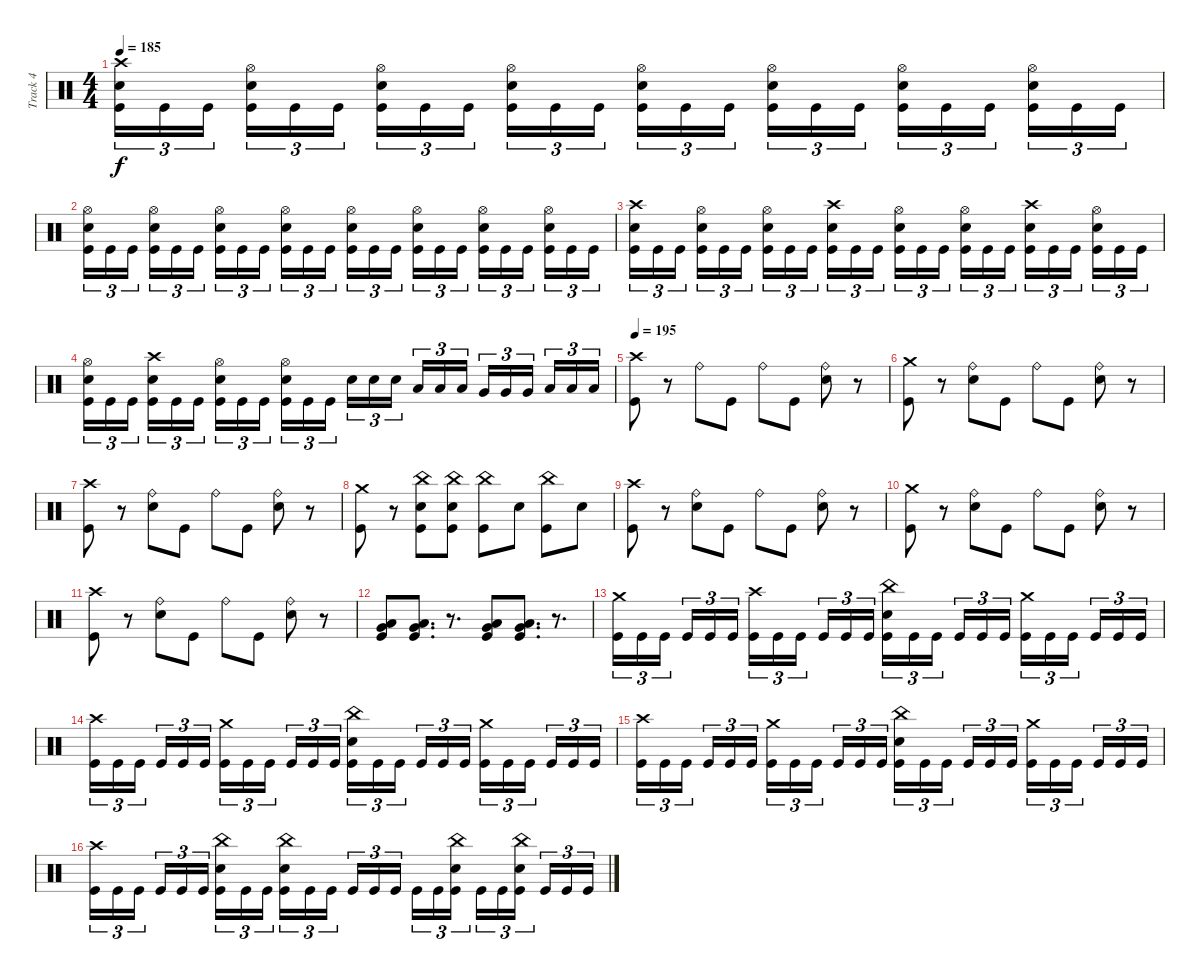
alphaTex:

\track ("Track 4" "Track 4") {instrument percussion}
\staff {score}
\articulation defaults
\ts (4 4)
\tempo 185
\clef neutral
\ks c
("Crash high (hit)" "Electric Snare (hit)" "Kick (hit)").16{tu (3 2) dy f} "Kick (hit)".16{tu (3 2)} "Kick (hit)".16{tu (3 2)} ("Hi-Hat (open)" "Electric Snare (hit)" "Kick (hit)").16{tu (3 2)} "Kick (hit)".16{tu (3 2)} "Kick (hit)".16{tu (3 2)} ("Hi-Hat (open)" "Electric Snare (hit)" "Kick (hit)").16{tu (3 2)} "Kick (hit)".16{tu (3 2)} "Kick (hit)".16{tu (3 2)} ("Hi-Hat (open)" "Electric Snare (hit)" "Kick (hit)").16{tu (3 2)} "Kick (hit)".16{tu (3 2)} "Kick (hit)".16{tu (3 2)} ("Hi-Hat (open)" "Electric Snare (hit)" "Kick (hit)").16{tu (3 2)} "Kick (hit)".16{tu (3 2)} "Kick (hit)".16{tu (3 2)} ("Hi-Hat (open)" "Electric Snare (hit)" "Kick (hit)").16{tu (3 2)} "Kick (hit)".16{tu (3 2)} "Kick (hit)".16{tu (3 2)} ("Hi-Hat (open)" "Electric Snare (hit)" "Kick (hit)").16{tu (3 2)} "Kick (hit)".16{tu (3 2)} "Kick (hit)".16{tu (3 2)} ("Hi-Hat (open)" "Electric Snare (hit)" "Kick (hit)").16{tu (3 2)} "Kick (hit)".16{tu (3 2)} "Kick (hit)".16{tu (3 2)} |
("Hi-Hat (open)" "Electric Snare (hit)" "Kick (hit)").16{tu (3 2)} "Kick (hit)".16{tu (3 2)} "Kick (hit)".16{tu (3 2)} ("Hi-Hat (open)" "Electric Snare (hit)" "Kick (hit)").16{tu (3 2)} "Kick (hit)".16{tu (3 2)} "Kick (hit)".16{tu (3 2)} ("Hi-Hat (open)" "Electric Snare (hit)" "Kick (hit)").16{tu (3 2)} "Kick (hit)".16{tu (3 2)} "Kick (hit)".16{tu (3 2)} ("Hi-Hat (open)" "Electric Snare (hit)" "Kick (hit)").16{tu (3 2)} "Kick (hit)".16{tu (3 2)} "Kick (hit)".16{tu (3 2)} ("Hi-Hat (open)" "Electric Snare (hit)" "Kick (hit)").16{tu (3 2)} "Kick (hit)".16{tu (3 2)} "Kick (hit)".16{tu (3 2)} ("Hi-Hat (open)" "Electric Snare (hit)" "Kick (hit)").16{tu (3 2)} "Kick (hit)".16{tu (3 2)} "Kick (hit)".16{tu (3 2)} ("Hi-Hat (open)" "Electric Snare (hit)" "Kick (hit)").16{tu (3 2)} "Kick (hit)".16{tu (3 2)} "Kick (hit)".16{tu (3 2)} ("Hi-Hat (open)" "Electric Snare (hit)" "Kick (hit)").16{tu (3 2)} "Kick (hit)".16{tu (3 2)} "Kick (hit)".16{tu (3 2)} |
("Crash high (hit)"{x} "Electric Snare (hit)" "Kick (hit)").16{tu (3 2)} "Kick (hit)".16{tu (3 2)} "Kick (hit)".16{tu (3 2)} ("Hi-Hat (open)" "Electric Snare (hit)" "Kick (hit)").16{tu (3 2)} "Kick (hit)".16{tu (3 2)} "Kick (hit)".16{tu (3 2)} ("Hi-Hat (open)" "Electric Snare (hit)" "Kick (hit)").16{tu (3 2)} "Kick (hit)".16{tu (3 2)} "Kick (hit)".16{tu (3 2)} ("Crash high (hit)"{x} "Electric Snare (hit)" "Kick (hit)").16{tu (3 2)} "Kick (hit)".16{tu (3 2)} "Kick (hit)".16{tu (3 2)} ("Hi-Hat (open)" "Electric Snare (hit)" "Kick (hit)").16{tu (3 2)} "Kick (hit)".16{tu (3 2)} "Kick (hit)".16{tu (3 2)} ("Hi-Hat (open)" "Electric Snare (hit)" "Kick (hit)").16{tu (3 2)} "Kick (hit)".16{tu (3 2)} "Kick (hit)".16{tu (3 2)} ("Crash high (hit)"{x} "Electric Snare (hit)" "Kick (hit)").16{tu (3 2)} "Kick (hit)".16{tu (3 2)} "Kick (hit)".16{tu (3 2)} ("Hi-Hat (open)" "Electric Snare (hit)" "Kick (hit)").16{tu (3 2)} "Kick (hit)".16{tu (3 2)} "Kick (hit)".16{tu (3 2)} |
("Hi-Hat (open)" "Electric Snare (hit)" "Kick (hit)").16{tu (3 2)} "Kick (hit)".16{tu (3 2)} "Kick (hit)".16{tu (3 2)} ("Crash high (hit)"{x} "Electric Snare (hit)" "Kick (hit)").16{tu (3 2)} "Kick (hit)".16{tu (3 2)} "Kick (hit)".16{tu (3 2)} ("Hi-Hat (open)" "Electric Snare (hit)" "Kick (hit)").16{tu (3 2)} "Kick (hit)".16{tu (3 2)} "Kick (hit)".16{tu (3 2)} ("Hi-Hat (open)" "Electric Snare (hit)" "Kick (hit)").16{tu (3 2)} "Kick (hit)".16{tu (3 2)} "Kick (hit)".16{tu (3 2)} "Electric Snare (hit)".16{tu (3 2)} "Electric Snare (hit)".16{tu (3 2)} "Electric Snare (hit)".16{tu (3 2)} "Low Tom (hit)".16{tu (3 2)} "Low Tom (hit)".16{tu (3 2)} "Low Tom (hit)".16{tu (3 2)} "Very Low Tom (hit)".16{tu (3 2)} "Very Low Tom (hit)".16{tu (3 2)} "Very Low Tom (hit)".16{tu (3 2)} "Low Floor Tom (hit)".16{tu (3 2)} "Low Floor Tom (hit)".16{tu (3 2)} "Low Floor Tom (hit)".16{tu (3 2)} |
\tempo 195
("Crash high (hit)" "Kick (hit)").8 r.8 "Ride (bell)".8 "Kick (hit)".8 "Ride (bell)".8 "Kick (hit)".8 ("Ride (bell)" "Electric Snare (hit)").8 r.8 |
("Crash medium (hit)" "Kick (hit)").8 r.8 ("Ride (bell)" "Electric Snare (hit)").8 "Kick (hit)".8 "Ride (bell)".8 "Kick (hit)".8 ("Ride (bell)" "Electric Snare (hit)").8 r.8 |
("Crash high (hit)" "Kick (hit)").8 r.8 ("Ride (bell)" "Electric Snare (hit)").8 "Kick (hit)".8 "Ride (bell)".8 "Kick (hit)".8 ("Ride (bell)" "Electric Snare (hit)").8 r.8 |
("Crash medium (hit)" "Kick (hit)").8 r.8 ("China (hit)" "Electric Snare (hit)" "Kick (hit)").8 ("China (hit)" "Electric Snare (hit)" "Kick (hit)").8 ("China (hit)" "Kick (hit)").8 "Electric Snare (hit)".8 ("China (hit)" "Kick (hit)").8 "Electric Snare (hit)".8 |
("Crash high (hit)" "Kick (hit)").8 r.8 ("Ride (bell)" "Electric Snare (hit)").8 "Kick (hit)".8 "Ride (bell)".8 "Kick (hit)".8 ("Ride (bell)" "Electric Snare (hit)").8 r.8 |
("Crash medium (hit)" "Kick (hit)").8 r.8 ("Ride (bell)" "Electric Snare (hit)").8 "Kick (hit)".8 "Ride (bell)".8 "Kick (hit)".8 ("Ride (bell)" "Electric Snare (hit)").8 r.8 |
("Crash high (hit)" "Kick (hit)").8 r.8 ("Ride (bell)" "Electric Snare (hit)").8 "Kick (hit)".8 "Ride (bell)".8 "Kick (hit)".8 ("Ride (bell)" "Electric Snare (hit)").8 r.8 |
("Very Low Tom (hit)" "Low Floor Tom (hit)" "Kick (hit)").8 ("Very Low Tom (hit)" "Low Floor Tom (hit)" "Kick (hit)").8{d} r.8{d} ("Very Low Tom (hit)" "Low Floor Tom (hit)" "Kick (hit)").8 ("Very Low Tom (hit)" "Low Floor Tom (hit)" "Kick (hit)").8{d} r.8{d} |
("Crash medium (hit)" "Kick (hit)").16{tu (3 2)} "Kick (hit)".16{tu (3 2)} "Kick (hit)".16{tu (3 2)} "Kick (hit)".16{tu (3 2)} "Kick (hit)".16{tu (3 2)} "Kick (hit)".16{tu (3 2)} ("Crash high (hit)" "Kick (hit)").16{tu (3 2)} "Kick (hit)".16{tu (3 2)} "Kick (hit)".16{tu (3 2)} "Kick (hit)".16{tu (3 2)} "Kick (hit)".16{tu (3 2)} "Kick (hit)".16{tu (3 2)} ("China (hit)" "Electric Snare (hit)" "Kick (hit)").16{tu (3 2)} "Kick (hit)".16{tu (3 2)} "Kick (hit)".16{tu (3 2)} "Kick (hit)".16{tu (3 2)} "Kick (hit)".16{tu (3 2)} "Kick (hit)".16{tu (3 2)} ("Crash medium (hit)" "Kick (hit)").16{tu (3 2)} "Kick (hit)".16{tu (3 2)} "Kick (hit)".16{tu (3 2)} "Kick (hit)".16{tu (3 2)} "Kick (hit)".16{tu (3 2)} "Kick (hit)".16{tu (3 2)} |
("Crash high (hit)" "Kick (hit)").16{tu (3 2)} "Kick (hit)".16{tu (3 2)} "Kick (hit)".16{tu (3 2)} "Kick (hit)".16{tu (3 2)} "Kick (hit)".16{tu (3 2)} "Kick (hit)".16{tu (3 2)} ("Crash medium (hit)" "Kick (hit)").16{tu (3 2)} "Kick (hit)".16{tu (3 2)} "Kick (hit)".16{tu (3 2)} "Kick (hit)".16{tu (3 2)} "Kick (hit)".16{tu (3 2)} "Kick (hit)".16{tu (3 2)} ("China (hit)" "Electric Snare (hit)" "Kick (hit)").16{tu (3 2)} "Kick (hit)".16{tu (3 2)} "Kick (hit)".16{tu (3 2)} "Kick (hit)".16{tu (3 2)} "Kick (hit)".16{tu (3 2)} "Kick (hit)".16{tu (3 2)} ("Crash medium (hit)" "Kick (hit)").16{tu (3 2)} "Kick (hit)".16{tu (3 2)} "Kick (hit)".16{tu (3 2)} "Kick (hit)".16{tu (3 2)} "Kick (hit)".16{tu (3 2)} "Kick (hit)".16{tu (3 2)} |
("Crash high (hit)" "Kick (hit)").16{tu (3 2)} "Kick (hit)".16{tu (3 2)} "Kick (hit)".16{tu (3 2)} "Kick (hit)".16{tu (3 2)} "Kick (hit)".16{tu (3 2)} "Kick (hit)".16{tu (3 2)} ("Crash medium (hit)" "Kick (hit)").16{tu (3 2)} "Kick (hit)".16{tu (3 2)} "Kick (hit)".16{tu (3 2)} "Kick (hit)".16{tu (3 2)} "Kick (hit)".16{tu (3 2)} "Kick (hit)".16{tu (3 2)} ("China (hit)" "Electric Snare (hit)" "Kick (hit)").16{tu (3 2)} "Kick (hit)".16{tu (3 2)} "Kick (hit)".16{tu (3 2)} "Kick (hit)".16{tu (3 2)} "Kick (hit)".16{tu (3 2)} "Kick (hit)".16{tu (3 2)} ("Crash medium (hit)" "Kick (hit)").16{tu (3 2)} "Kick (hit)".16{tu (3 2)} "Kick (hit)".16{tu (3 2)} "Kick (hit)".16{tu (3 2)} "Kick (hit)".16{tu (3 2)} "Kick (hit)".16{tu (3 2)} |
("Crash high (hit)" "Kick (hit)").16{tu (3 2)} "Kick (hit)".16{tu (3 2)} "Kick (hit)".16{tu (3 2)} "Kick (hit)".16{tu (3 2)} "Kick (hit)".16{tu (3 2)} "Kick (hit)".16{tu (3 2)} ("China (hit)" "Electric Snare (hit)" "Kick (hit)").16{tu (3 2)} "Kick (hit)".16{tu (3 2)} "Kick (hit)".16{tu (3 2)} ("China (hit)" "Electric Snare (hit)" "Kick (hit)").16{tu (3 2)} "Kick (hit)".16{tu (3 2)} "Kick (hit)".16{tu (3 2)} "Kick (hit)".16{tu (3 2)} "Kick (hit)".16{tu (3 2)} "Kick (hit)".16{tu (3 2)} "Kick (hit)".16{tu (3 2)} "Kick (hit)".16{tu (3 2)} ("China (hit)" "Electric Snare (hit)" "Kick (hit)").16{tu (3 2)} "Kick (hit)".16{tu (3 2)} "Kick (hit)".16{tu (3 2)} ("China (hit)" "Electric Snare (hit)" "Kick (hit)").16{tu (3 2)} "Kick (hit)".16{tu (3 2)} "Kick (hit)".16{tu (3 2)} "Kick (hit)".16{tu (3 2)}
